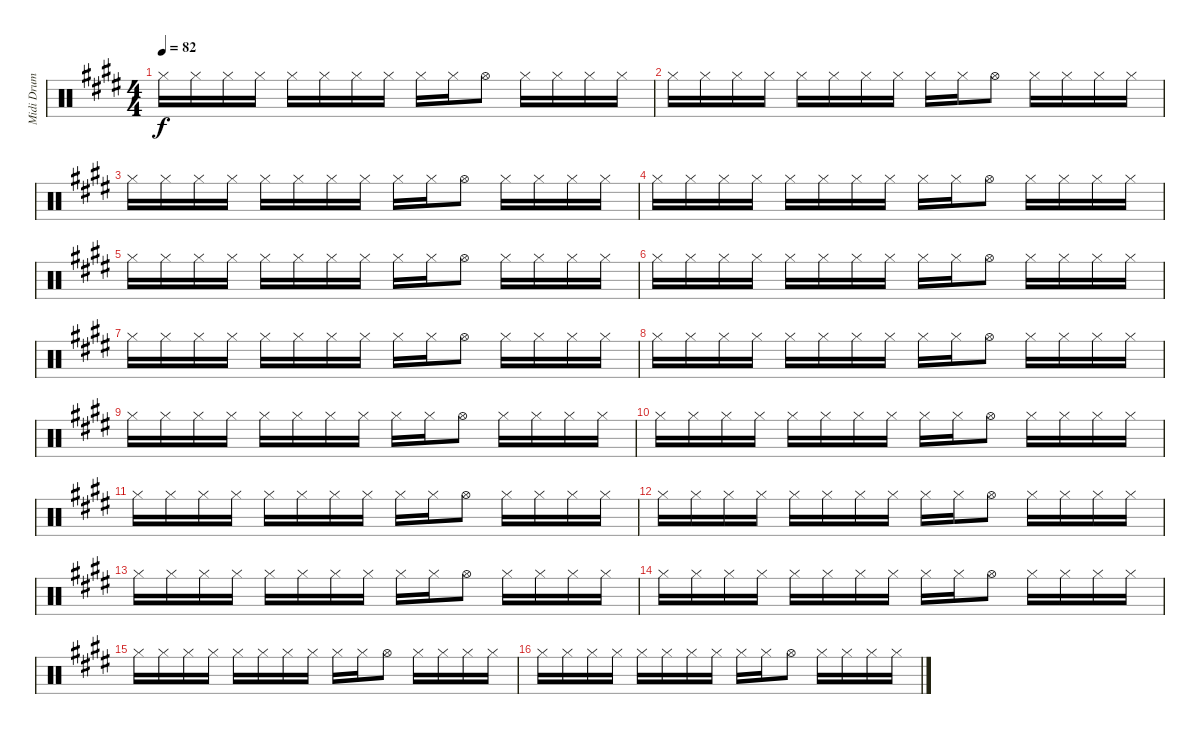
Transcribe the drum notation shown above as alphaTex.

\track ("Midi Drum" "Midi Drum") {instrument percussion}
\staff {score}
\articulation defaults
\ts (4 4)
\tempo 82
\clef neutral
\ks e "Hi-Hat (closed)".16{dy f} "Hi-Hat (closed)".16 "Hi-Hat (closed)".16 "Hi-Hat (closed)".16 "Hi-Hat (closed)".16 "Hi-Hat (closed)".16 "Hi-Hat (closed)".16 "Hi-Hat (closed)".16 "Hi-Hat (closed)".16 "Hi-Hat (closed)".16 "Hi-Hat (open)".8 "Hi-Hat (closed)".16 "Hi-Hat (closed)".16 "Hi-Hat (closed)".16 "Hi-Hat (closed)".16
|
"Hi-Hat (closed)".16 "Hi-Hat (closed)".16 "Hi-Hat (closed)".16 "Hi-Hat (closed)".16 "Hi-Hat (closed)".16 "Hi-Hat (closed)".16 "Hi-Hat (closed)".16 "Hi-Hat (closed)".16 "Hi-Hat (closed)".16 "Hi-Hat (closed)".16 "Hi-Hat (open)".8 "Hi-Hat (closed)".16 "Hi-Hat (closed)".16 "Hi-Hat (closed)".16 "Hi-Hat (closed)".16 |
"Hi-Hat (closed)".16 "Hi-Hat (closed)".16 "Hi-Hat (closed)".16 "Hi-Hat (closed)".16 "Hi-Hat (closed)".16 "Hi-Hat (closed)".16 "Hi-Hat (closed)".16 "Hi-Hat (closed)".16 "Hi-Hat (closed)".16 "Hi-Hat (closed)".16 "Hi-Hat (open)".8 "Hi-Hat (closed)".16 "Hi-Hat (closed)".16 "Hi-Hat (closed)".16 "Hi-Hat (closed)".16 |
"Hi-Hat (closed)".16 "Hi-Hat (closed)".16 "Hi-Hat (closed)".16 "Hi-Hat (closed)".16 "Hi-Hat (closed)".16 "Hi-Hat (closed)".16 "Hi-Hat (closed)".16 "Hi-Hat (closed)".16 "Hi-Hat (closed)".16 "Hi-Hat (closed)".16 "Hi-Hat (open)".8 "Hi-Hat (closed)".16 "Hi-Hat (closed)".16 "Hi-Hat (closed)".16 "Hi-Hat (closed)".16 |
"Hi-Hat (closed)".16 "Hi-Hat (closed)".16 "Hi-Hat (closed)".16 "Hi-Hat (closed)".16 "Hi-Hat (closed)".16 "Hi-Hat (closed)".16 "Hi-Hat (closed)".16 "Hi-Hat (closed)".16 "Hi-Hat (closed)".16 "Hi-Hat (closed)".16 "Hi-Hat (open)".8 "Hi-Hat (closed)".16 "Hi-Hat (closed)".16 "Hi-Hat (closed)".16 "Hi-Hat (closed)".16 |
"Hi-Hat (closed)".16 "Hi-Hat (closed)".16 "Hi-Hat (closed)".16 "Hi-Hat (closed)".16 "Hi-Hat (closed)".16 "Hi-Hat (closed)".16 "Hi-Hat (closed)".16 "Hi-Hat (closed)".16 "Hi-Hat (closed)".16 "Hi-Hat (closed)".16 "Hi-Hat (open)".8 "Hi-Hat (closed)".16 "Hi-Hat (closed)".16 "Hi-Hat (closed)".16 "Hi-Hat (closed)".16 |
"Hi-Hat (closed)".16 "Hi-Hat (closed)".16 "Hi-Hat (closed)".16 "Hi-Hat (closed)".16 "Hi-Hat (closed)".16 "Hi-Hat (closed)".16 "Hi-Hat (closed)".16 "Hi-Hat (closed)".16 "Hi-Hat (closed)".16 "Hi-Hat (closed)".16 "Hi-Hat (open)".8 "Hi-Hat (closed)".16 "Hi-Hat (closed)".16 "Hi-Hat (closed)".16 "Hi-Hat (closed)".16 |
"Hi-Hat (closed)".16 "Hi-Hat (closed)".16 "Hi-Hat (closed)".16 "Hi-Hat (closed)".16 "Hi-Hat (closed)".16 "Hi-Hat (closed)".16 "Hi-Hat (closed)".16 "Hi-Hat (closed)".16 "Hi-Hat (closed)".16 "Hi-Hat (closed)".16 "Hi-Hat (open)".8 "Hi-Hat (closed)".16 "Hi-Hat (closed)".16 "Hi-Hat (closed)".16 "Hi-Hat (closed)".16 |
"Hi-Hat (closed)".16 "Hi-Hat (closed)".16 "Hi-Hat (closed)".16 "Hi-Hat (closed)".16 "Hi-Hat (closed)".16 "Hi-Hat (closed)".16 "Hi-Hat (closed)".16 "Hi-Hat (closed)".16 "Hi-Hat (closed)".16 "Hi-Hat (closed)".16 "Hi-Hat (open)".8 "Hi-Hat (closed)".16 "Hi-Hat (closed)".16 "Hi-Hat (closed)".16 "Hi-Hat (closed)".16 |
"Hi-Hat (closed)".16 "Hi-Hat (closed)".16 "Hi-Hat (closed)".16 "Hi-Hat (closed)".16 "Hi-Hat (closed)".16 "Hi-Hat (closed)".16 "Hi-Hat (closed)".16 "Hi-Hat (closed)".16 "Hi-Hat (closed)".16 "Hi-Hat (closed)".16 "Hi-Hat (open)".8 "Hi-Hat (closed)".16 "Hi-Hat (closed)".16 "Hi-Hat (closed)".16 "Hi-Hat (closed)".16 |
"Hi-Hat (closed)".16 "Hi-Hat (closed)".16 "Hi-Hat (closed)".16 "Hi-Hat (closed)".16 "Hi-Hat (closed)".16 "Hi-Hat (closed)".16 "Hi-Hat (closed)".16 "Hi-Hat (closed)".16 "Hi-Hat (closed)".16 "Hi-Hat (closed)".16 "Hi-Hat (open)".8 "Hi-Hat (closed)".16 "Hi-Hat (closed)".16 "Hi-Hat (closed)".16 "Hi-Hat (closed)".16 |
"Hi-Hat (closed)".16 "Hi-Hat (closed)".16 "Hi-Hat (closed)".16 "Hi-Hat (closed)".16 "Hi-Hat (closed)".16 "Hi-Hat (closed)".16 "Hi-Hat (closed)".16 "Hi-Hat (closed)".16 "Hi-Hat (closed)".16 "Hi-Hat (closed)".16 "Hi-Hat (open)".8 "Hi-Hat (closed)".16 "Hi-Hat (closed)".16 "Hi-Hat (closed)".16 "Hi-Hat (closed)".16 |
"Hi-Hat (closed)".16 "Hi-Hat (closed)".16 "Hi-Hat (closed)".16 "Hi-Hat (closed)".16 "Hi-Hat (closed)".16 "Hi-Hat (closed)".16 "Hi-Hat (closed)".16 "Hi-Hat (closed)".16 "Hi-Hat (closed)".16 "Hi-Hat (closed)".16 "Hi-Hat (open)".8 "Hi-Hat (closed)".16 "Hi-Hat (closed)".16 "Hi-Hat (closed)".16 "Hi-Hat (closed)".16 |
"Hi-Hat (closed)".16 "Hi-Hat (closed)".16 "Hi-Hat (closed)".16 "Hi-Hat (closed)".16 "Hi-Hat (closed)".16 "Hi-Hat (closed)".16 "Hi-Hat (closed)".16 "Hi-Hat (closed)".16 "Hi-Hat (closed)".16 "Hi-Hat (closed)".16 "Hi-Hat (open)".8 "Hi-Hat (closed)".16 "Hi-Hat (closed)".16 "Hi-Hat (closed)".16 "Hi-Hat (closed)".16 |
"Hi-Hat (closed)".16 "Hi-Hat (closed)".16 "Hi-Hat (closed)".16 "Hi-Hat (closed)".16 "Hi-Hat (closed)".16 "Hi-Hat (closed)".16 "Hi-Hat (closed)".16 "Hi-Hat (closed)".16 "Hi-Hat (closed)".16 "Hi-Hat (closed)".16 "Hi-Hat (open)".8 "Hi-Hat (closed)".16 "Hi-Hat (closed)".16 "Hi-Hat (closed)".16 "Hi-Hat (closed)".16 |
"Hi-Hat (closed)".16 "Hi-Hat (closed)".16 "Hi-Hat (closed)".16 "Hi-Hat (closed)".16 "Hi-Hat (closed)".16 "Hi-Hat (closed)".16 "Hi-Hat (closed)".16 "Hi-Hat (closed)".16 "Hi-Hat (closed)".16 "Hi-Hat (closed)".16 "Hi-Hat (open)".8 "Hi-Hat (closed)".16 "Hi-Hat (closed)".16 "Hi-Hat (closed)".16 "Hi-Hat (closed)".16
